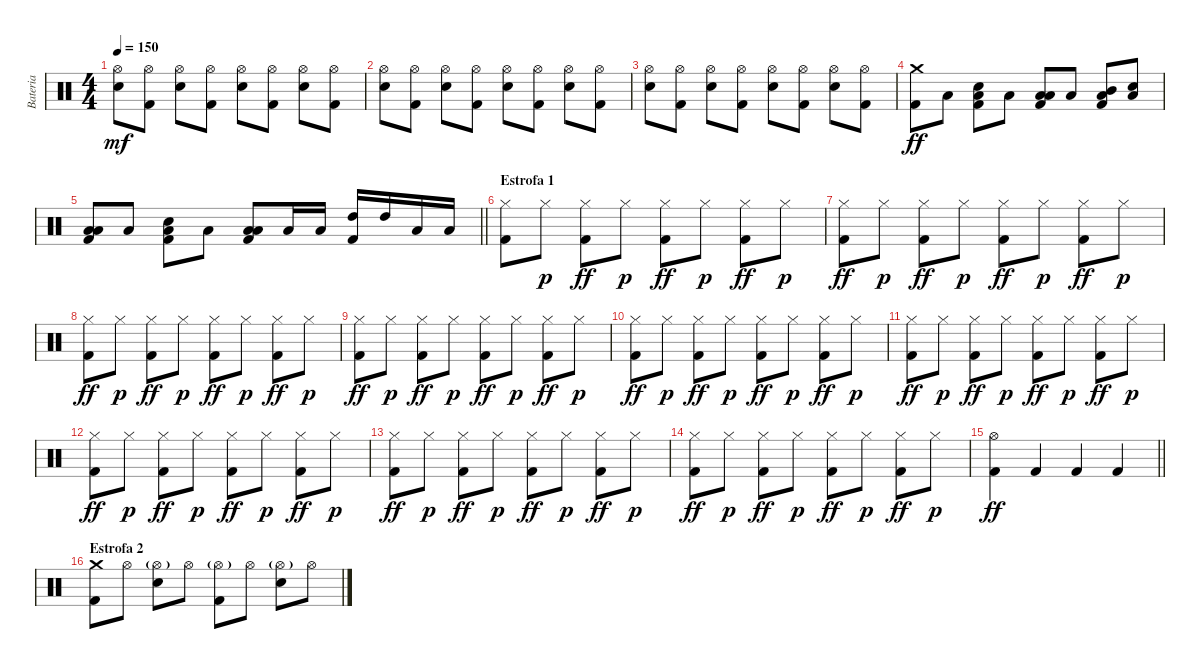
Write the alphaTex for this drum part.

\track ("Bateria" "Bateria") {instrument percussion}
\staff {score}
\articulation defaults
\ts (4 4)
\tempo 150
\clef neutral
\ks c
("Hi-Hat (open)" "Snare (hit) 2").8{dy mf} ("Hi-Hat (open)" "Kick (hit) 2").8 ("Hi-Hat (open)" "Snare (hit) 2").8 ("Hi-Hat (open)" "Kick (hit) 2").8 ("Hi-Hat (open)" "Snare (hit) 2").8 ("Hi-Hat (open)" "Kick (hit) 2").8 ("Hi-Hat (open)" "Snare (hit) 2").8 ("Hi-Hat (open)" "Kick (hit) 2").8 |
("Hi-Hat (open)" "Snare (hit) 2").8 ("Hi-Hat (open)" "Kick (hit) 2").8 ("Hi-Hat (open)" "Snare (hit) 2").8 ("Hi-Hat (open)" "Kick (hit) 2").8 ("Hi-Hat (open)" "Snare (hit) 2").8 ("Hi-Hat (open)" "Kick (hit) 2").8 ("Hi-Hat (open)" "Snare (hit) 2").8 ("Hi-Hat (open)" "Kick (hit) 2").8 |
("Hi-Hat (open)" "Snare (hit) 2").8 ("Hi-Hat (open)" "Kick (hit) 2").8 ("Hi-Hat (open)" "Snare (hit) 2").8 ("Hi-Hat (open)" "Kick (hit) 2").8 ("Hi-Hat (open)" "Snare (hit) 2").8 ("Hi-Hat (open)" "Kick (hit) 2").8 ("Hi-Hat (open)" "Snare (hit) 2").8 ("Hi-Hat (open)" "Kick (hit) 2").8 |
("Crash medium (hit)" "Kick (hit) 2").8{dy ff} "Low Floor Tom (hit)".8 ("Low Floor Tom (hit)" "Snare (hit) 2" "Kick (hit) 2").8 "Low Floor Tom (hit)".8 ("Low Tom (hit)" "Low Floor Tom (hit)" "Kick (hit) 2").8 "Low Floor Tom (hit)".8 ("Mid Tom (hit)" "Low Floor Tom (hit)" "Kick (hit) 2").8 ("Low Floor Tom (hit)" "Snare (hit) 2").8 |
\barLineRight lightlight
("Low Tom (hit)" "Low Floor Tom (hit)" "Kick (hit) 2").8 "Low Floor Tom (hit)".8 ("Low Floor Tom (hit)" "Snare (hit) 2" "Kick (hit) 2").8 "Low Floor Tom (hit)".8 ("Low Tom (hit)" "Low Floor Tom (hit)" "Kick (hit) 2").8 "Low Tom (hit)".16 "Low Tom (hit)".16 ("High Tom (hit)" "Kick (hit) 2").16 "High Tom (hit)".16 "Low Floor Tom (hit)".16 "Low Floor Tom (hit)".16 |
\section ("" "Estrofa 1")
("Hi-Hat (closed)" "Kick (hit) 2").8 "Hi-Hat (closed)".8{dy p} ("Hi-Hat (closed)" "Kick (hit) 2").8{dy ff} "Hi-Hat (closed)".8{dy p} ("Hi-Hat (closed)" "Kick (hit) 2").8{dy ff} "Hi-Hat (closed)".8{dy p} ("Hi-Hat (closed)" "Kick (hit) 2").8{dy ff} "Hi-Hat (closed)".8{dy p} |
("Hi-Hat (closed)" "Kick (hit) 2").8{dy ff} "Hi-Hat (closed)".8{dy p} ("Hi-Hat (closed)" "Kick (hit) 2").8{dy ff} "Hi-Hat (closed)".8{dy p} ("Hi-Hat (closed)" "Kick (hit) 2").8{dy ff} "Hi-Hat (closed)".8{dy p} ("Hi-Hat (closed)" "Kick (hit) 2").8{dy ff} "Hi-Hat (closed)".8{dy p} |
("Hi-Hat (closed)" "Kick (hit) 2").8{dy ff} "Hi-Hat (closed)".8{dy p} ("Hi-Hat (closed)" "Kick (hit) 2").8{dy ff} "Hi-Hat (closed)".8{dy p} ("Hi-Hat (closed)" "Kick (hit) 2").8{dy ff} "Hi-Hat (closed)".8{dy p} ("Hi-Hat (closed)" "Kick (hit) 2").8{dy ff} "Hi-Hat (closed)".8{dy p} |
("Hi-Hat (closed)" "Kick (hit) 2").8{dy ff} "Hi-Hat (closed)".8{dy p} ("Hi-Hat (closed)" "Kick (hit) 2").8{dy ff} "Hi-Hat (closed)".8{dy p} ("Hi-Hat (closed)" "Kick (hit) 2").8{dy ff} "Hi-Hat (closed)".8{dy p} ("Hi-Hat (closed)" "Kick (hit) 2").8{dy ff} "Hi-Hat (closed)".8{dy p} |
("Hi-Hat (closed)" "Kick (hit) 2").8{dy ff} "Hi-Hat (closed)".8{dy p} ("Hi-Hat (closed)" "Kick (hit) 2").8{dy ff} "Hi-Hat (closed)".8{dy p} ("Hi-Hat (closed)" "Kick (hit) 2").8{dy ff} "Hi-Hat (closed)".8{dy p} ("Hi-Hat (closed)" "Kick (hit) 2").8{dy ff} "Hi-Hat (closed)".8{dy p} |
("Hi-Hat (closed)" "Kick (hit) 2").8{dy ff} "Hi-Hat (closed)".8{dy p} ("Hi-Hat (closed)" "Kick (hit) 2").8{dy ff} "Hi-Hat (closed)".8{dy p} ("Hi-Hat (closed)" "Kick (hit) 2").8{dy ff} "Hi-Hat (closed)".8{dy p} ("Hi-Hat (closed)" "Kick (hit) 2").8{dy ff} "Hi-Hat (closed)".8{dy p} |
("Hi-Hat (closed)" "Kick (hit) 2").8{dy ff} "Hi-Hat (closed)".8{dy p} ("Hi-Hat (closed)" "Kick (hit) 2").8{dy ff} "Hi-Hat (closed)".8{dy p} ("Hi-Hat (closed)" "Kick (hit) 2").8{dy ff} "Hi-Hat (closed)".8{dy p} ("Hi-Hat (closed)" "Kick (hit) 2").8{dy ff} "Hi-Hat (closed)".8{dy p} |
("Hi-Hat (closed)" "Kick (hit) 2").8{dy ff} "Hi-Hat (closed)".8{dy p} ("Hi-Hat (closed)" "Kick (hit) 2").8{dy ff} "Hi-Hat (closed)".8{dy p} ("Hi-Hat (closed)" "Kick (hit) 2").8{dy ff} "Hi-Hat (closed)".8{dy p} ("Hi-Hat (closed)" "Kick (hit) 2").8{dy ff} "Hi-Hat (closed)".8{dy p} |
("Hi-Hat (closed)" "Kick (hit) 2").8{dy ff} "Hi-Hat (closed)".8{dy p} ("Hi-Hat (closed)" "Kick (hit) 2").8{dy ff} "Hi-Hat (closed)".8{dy p} ("Hi-Hat (closed)" "Kick (hit) 2").8{dy ff} "Hi-Hat (closed)".8{dy p} ("Hi-Hat (closed)" "Kick (hit) 2").8{dy ff} "Hi-Hat (closed)".8{dy p} |
\barLineRight lightlight
("Hi-Hat (open)" "Kick (hit) 2").4{dy ff} "Kick (hit) 2".4 "Kick (hit) 2".4 "Kick (hit) 2".4 |
\section ("" "Estrofa 2")
("Crash medium (hit)" "Kick (hit) 2").8 "Hi-Hat (open)".8 ("Hi-Hat (open)"{g} "Snare (hit) 2").8 "Hi-Hat (open)".8 ("Hi-Hat (open)"{g} "Kick (hit) 2").8 "Hi-Hat (open)".8 ("Hi-Hat (open)"{g} "Snare (hit) 2").8 "Hi-Hat (open)".8
